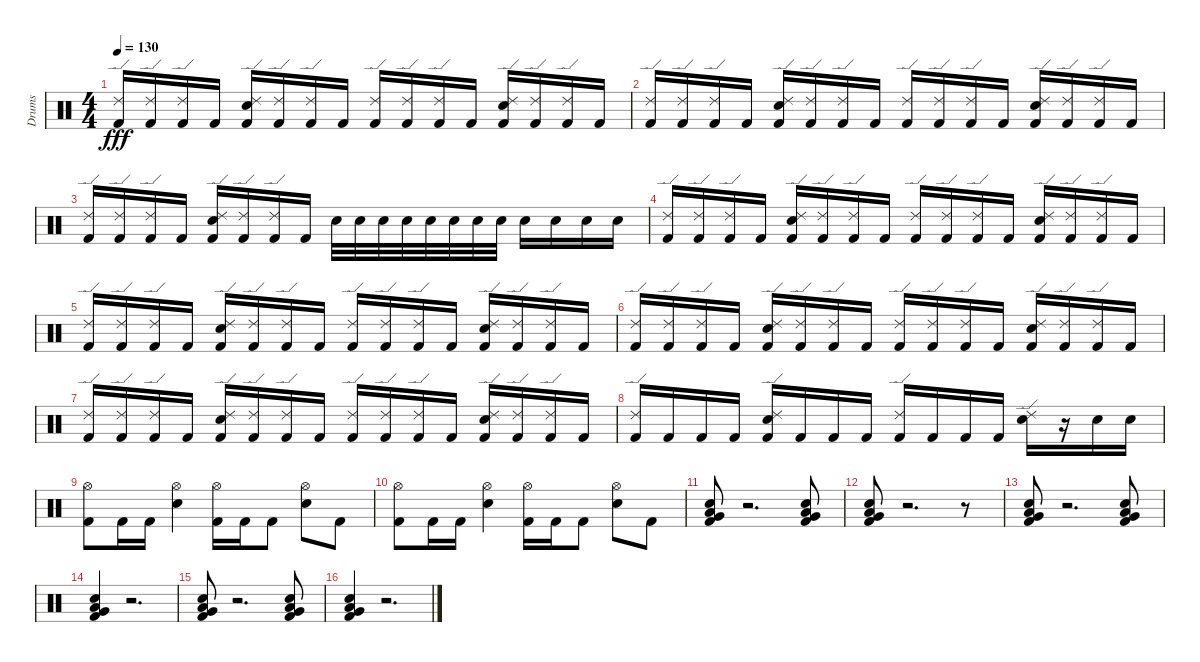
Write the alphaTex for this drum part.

\track ("Drums" "Drums") {instrument percussion}
\staff {score}
\articulation defaults
\ts (4 4)
\tempo 130
\clef neutral
\ks c
("Ride (edge) 2" "Kick (hit) 2").16{dy fff} ("Ride (edge) 2" "Kick (hit) 2").16 ("Ride (edge) 2" "Kick (hit) 2").16 "Kick (hit) 2".16 ("Electric Snare (hit)" "Ride (edge) 2" "Kick (hit) 2").16 ("Ride (edge) 2" "Kick (hit) 2").16 ("Ride (edge) 2" "Kick (hit) 2").16 "Kick (hit) 2".16 ("Ride (edge) 2" "Kick (hit) 2").16 ("Ride (edge) 2" "Kick (hit) 2").16 ("Ride (edge) 2" "Kick (hit) 2").16 "Kick (hit) 2".16 ("Electric Snare (hit)" "Ride (edge) 2" "Kick (hit) 2").16 ("Ride (edge) 2" "Kick (hit) 2").16 ("Ride (edge) 2" "Kick (hit) 2").16 "Kick (hit) 2".16 |
("Ride (edge) 2" "Kick (hit) 2").16 ("Ride (edge) 2" "Kick (hit) 2").16 ("Ride (edge) 2" "Kick (hit) 2").16 "Kick (hit) 2".16 ("Ride (edge) 2" "Kick (hit) 2" "Electric Snare (hit)").16 ("Ride (edge) 2" "Kick (hit) 2").16 ("Ride (edge) 2" "Kick (hit) 2").16 "Kick (hit) 2".16 ("Ride (edge) 2" "Kick (hit) 2").16 ("Ride (edge) 2" "Kick (hit) 2").16 ("Ride (edge) 2" "Kick (hit) 2").16 "Kick (hit) 2".16 ("Electric Snare (hit)" "Ride (edge) 2" "Kick (hit) 2").16 ("Ride (edge) 2" "Kick (hit) 2").16 ("Ride (edge) 2" "Kick (hit) 2").16 "Kick (hit) 2".16 |
("Ride (edge) 2" "Kick (hit) 2").16 ("Ride (edge) 2" "Kick (hit) 2").16 ("Ride (edge) 2" "Kick (hit) 2").16 "Kick (hit) 2".16 ("Electric Snare (hit)" "Ride (edge) 2" "Kick (hit) 2").16 ("Ride (edge) 2" "Kick (hit) 2").16 ("Ride (edge) 2" "Kick (hit) 2").16 "Kick (hit) 2".16 "Electric Snare (hit)".32 "Electric Snare (hit)".32 "Electric Snare (hit)".32 "Electric Snare (hit)".32 "Electric Snare (hit)".32 "Electric Snare (hit)".32 "Electric Snare (hit)".32 "Electric Snare (hit)".32 "Electric Snare (hit)".16 "Electric Snare (hit)".16 "Electric Snare (hit)".16 "Electric Snare (hit)".16 |
("Ride (edge) 2" "Kick (hit) 2").16 ("Ride (edge) 2" "Kick (hit) 2").16 ("Ride (edge) 2" "Kick (hit) 2").16 "Kick (hit) 2".16 ("Ride (edge) 2" "Kick (hit) 2" "Electric Snare (hit)").16 ("Ride (edge) 2" "Kick (hit) 2").16 ("Ride (edge) 2" "Kick (hit) 2").16 "Kick (hit) 2".16 ("Ride (edge) 2" "Kick (hit) 2").16 ("Ride (edge) 2" "Kick (hit) 2").16 ("Ride (edge) 2" "Kick (hit) 2").16 "Kick (hit) 2".16 ("Electric Snare (hit)" "Ride (edge) 2" "Kick (hit) 2").16 ("Ride (edge) 2" "Kick (hit) 2").16 ("Ride (edge) 2" "Kick (hit) 2").16 "Kick (hit) 2".16 |
("Ride (edge) 2" "Kick (hit) 2").16 ("Ride (edge) 2" "Kick (hit) 2").16 ("Ride (edge) 2" "Kick (hit) 2").16 "Kick (hit) 2".16 ("Electric Snare (hit)" "Ride (edge) 2" "Kick (hit) 2").16 ("Ride (edge) 2" "Kick (hit) 2").16 ("Ride (edge) 2" "Kick (hit) 2").16 "Kick (hit) 2".16 ("Ride (edge) 2" "Kick (hit) 2").16 ("Ride (edge) 2" "Kick (hit) 2").16 ("Ride (edge) 2" "Kick (hit) 2").16 "Kick (hit) 2".16 ("Electric Snare (hit)" "Ride (edge) 2" "Kick (hit) 2").16 ("Ride (edge) 2" "Kick (hit) 2").16 ("Ride (edge) 2" "Kick (hit) 2").16 "Kick (hit) 2".16 |
("Ride (edge) 2" "Kick (hit) 2").16 ("Ride (edge) 2" "Kick (hit) 2").16 ("Ride (edge) 2" "Kick (hit) 2").16 "Kick (hit) 2".16 ("Ride (edge) 2" "Kick (hit) 2" "Electric Snare (hit)").16 ("Ride (edge) 2" "Kick (hit) 2").16 ("Ride (edge) 2" "Kick (hit) 2").16 "Kick (hit) 2".16 ("Ride (edge) 2" "Kick (hit) 2").16 ("Ride (edge) 2" "Kick (hit) 2").16 ("Ride (edge) 2" "Kick (hit) 2").16 "Kick (hit) 2".16 ("Electric Snare (hit)" "Ride (edge) 2" "Kick (hit) 2").16 ("Ride (edge) 2" "Kick (hit) 2").16 ("Ride (edge) 2" "Kick (hit) 2").16 "Kick (hit) 2".16 |
("Ride (edge) 2" "Kick (hit) 2").16 ("Ride (edge) 2" "Kick (hit) 2").16 ("Ride (edge) 2" "Kick (hit) 2").16 "Kick (hit) 2".16 ("Electric Snare (hit)" "Ride (edge) 2" "Kick (hit) 2").16 ("Ride (edge) 2" "Kick (hit) 2").16 ("Ride (edge) 2" "Kick (hit) 2").16 "Kick (hit) 2".16 ("Ride (edge) 2" "Kick (hit) 2").16 ("Ride (edge) 2" "Kick (hit) 2").16 ("Ride (edge) 2" "Kick (hit) 2").16 "Kick (hit) 2".16 ("Electric Snare (hit)" "Ride (edge) 2" "Kick (hit) 2").16 ("Ride (edge) 2" "Kick (hit) 2").16 ("Ride (edge) 2" "Kick (hit) 2").16 "Kick (hit) 2".16 |
("Ride (edge) 2" "Kick (hit) 2").16 "Kick (hit) 2".16 "Kick (hit) 2".16 "Kick (hit) 2".16 ("Electric Snare (hit)" "Ride (edge) 2" "Kick (hit) 2").16 "Kick (hit) 2".16 "Kick (hit) 2".16 "Kick (hit) 2".16 ("Ride (edge) 2" "Kick (hit) 2").16 "Kick (hit) 2".16 "Kick (hit) 2".16 "Kick (hit) 2".16 ("Ride (edge) 2" "Electric Snare (hit)").16 r.16 "Electric Snare (hit)".16 "Electric Snare (hit)".16 |
("Hi-Hat (open)" "Kick (hit) 2").8 "Kick (hit) 2".16 "Kick (hit) 2".16 ("Hi-Hat (open)" "Electric Snare (hit)").4 ("Hi-Hat (open)" "Kick (hit) 2").16 "Kick (hit) 2".16 "Kick (hit) 2".8 ("Hi-Hat (open)" "Electric Snare (hit)").8 "Kick (hit) 2".8 |
("Hi-Hat (open)" "Kick (hit) 2").8 "Kick (hit) 2".16 "Kick (hit) 2".16 ("Hi-Hat (open)" "Electric Snare (hit)").4 ("Hi-Hat (open)" "Kick (hit) 2").16 "Kick (hit) 2".16 "Kick (hit) 2".8 ("Hi-Hat (open)" "Electric Snare (hit)").8 "Kick (hit) 2".8 |
("Electric Snare (hit)" "Low Floor Tom (hit)" "Very Low Tom (hit)" "Kick (hit) 2").8 r.2{d} ("Electric Snare (hit)" "Low Floor Tom (hit)" "Very Low Tom (hit)" "Kick (hit) 2").8 |
("Electric Snare (hit)" "Very Low Tom (hit)" "Low Floor Tom (hit)" "Kick (hit) 2").8 r.2{d} r.8 |
("Electric Snare (hit)" "Low Floor Tom (hit)" "Kick (hit) 2" "Very Low Tom (hit)").8 r.2{d} ("Electric Snare (hit)" "Very Low Tom (hit)" "Low Floor Tom (hit)" "Kick (hit) 2").8 |
("Electric Snare (hit)" "Low Floor Tom (hit)" "Very Low Tom (hit)" "Kick (hit) 2").4 r.2{d} |
("Electric Snare (hit)" "Very Low Tom (hit)" "Low Floor Tom (hit)" "Kick (hit) 2").8 r.2{d} ("Electric Snare (hit)" "Very Low Tom (hit)" "Low Floor Tom (hit)" "Kick (hit) 2").8 |
("Electric Snare (hit)" "Low Floor Tom (hit)" "Kick (hit) 2" "Very Low Tom (hit)").4 r.2{d}
